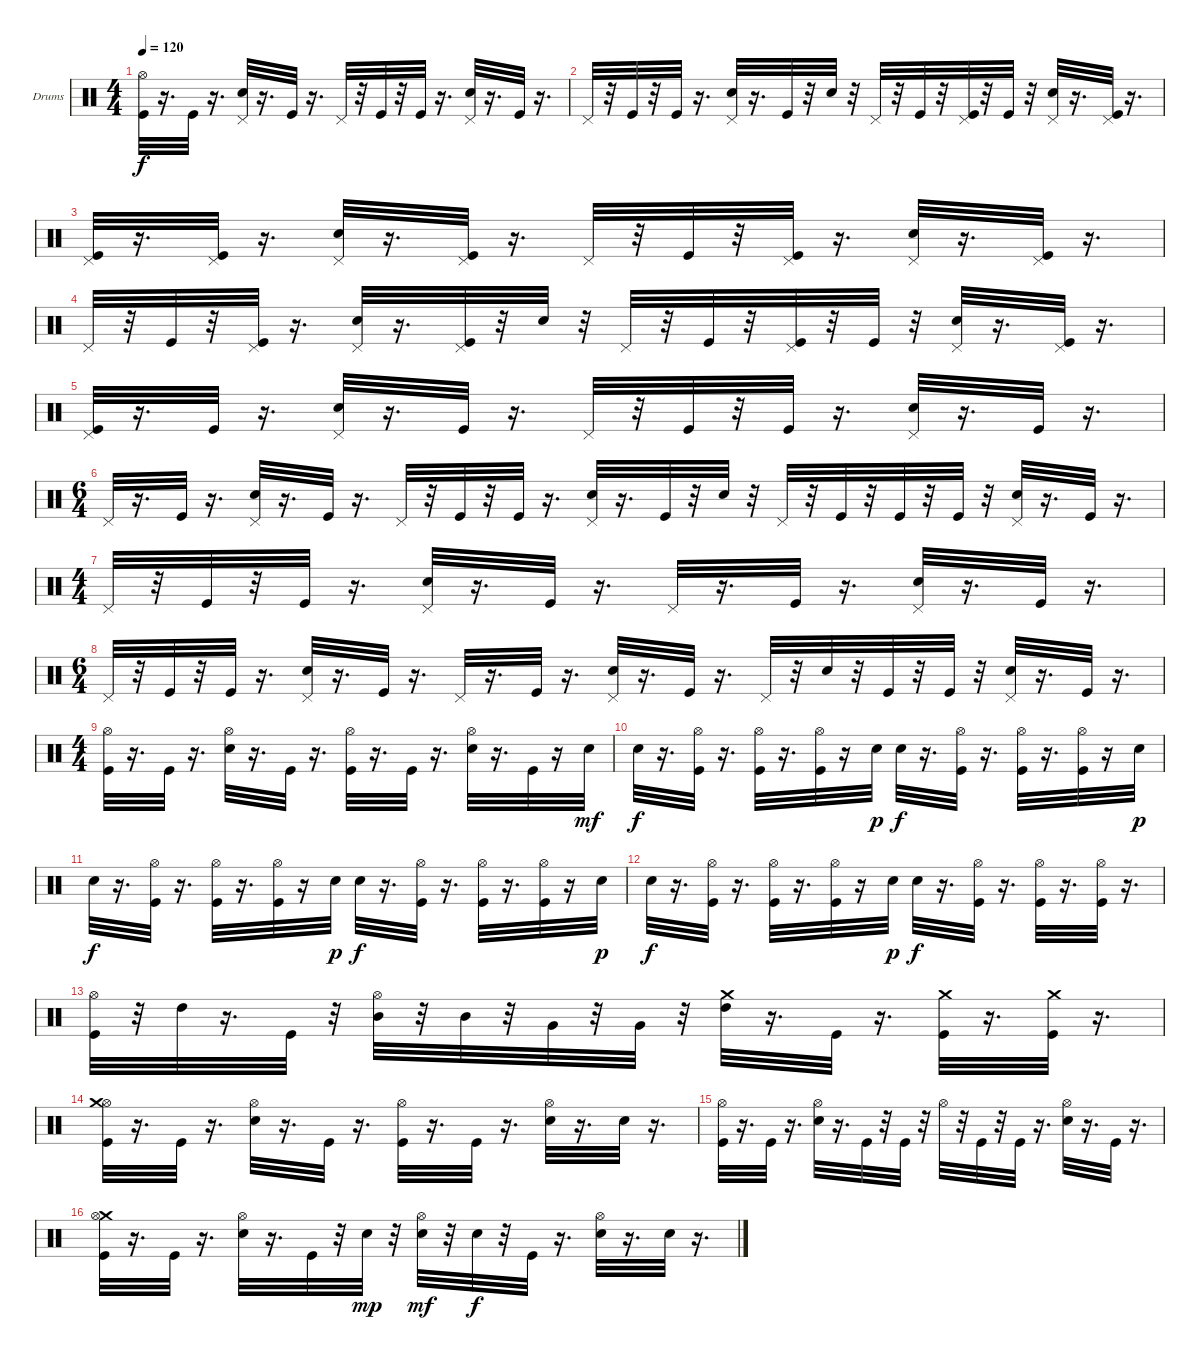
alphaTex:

\bracketExtendMode groupsimilarinstruments
\firstSystemTrackNameOrientation horizontal
\otherSystemsTrackNameOrientation horizontal
\track ("Drumkit" "Drums") {instrument percussion}
\staff {score}
\articulation defaults
\ts (4 4)
\tempo 120
\clef neutral
\ks c
("Hi-Hat (open)" "Kick (hit)").32{dy f} r.16{d} "Kick (hit)".32 r.16{d} ("Pedal Hi-Hat (hit)" "Snare (hit) 2").32 r.16{d} "Kick (hit)".32 r.16{d} "Pedal Hi-Hat (hit)".32 r.32 "Kick (hit)".32 r.32 "Kick (hit)".32 r.16{d} ("Pedal Hi-Hat (hit)" "Snare (hit) 2").32 r.16{d} "Kick (hit)".32 r.16{d} |
"Pedal Hi-Hat (hit)".32 r.32 "Kick (hit)".32 r.32 "Kick (hit)".32 r.16{d} ("Pedal Hi-Hat (hit)" "Snare (hit) 2").32 r.16{d} "Kick (hit)".32 r.32 "Snare (hit) 2".32 r.32 "Pedal Hi-Hat (hit)".32 r.32 "Kick (hit)".32 r.32 ("Pedal Hi-Hat (hit)" "Kick (hit)").32 r.32 "Kick (hit)".32 r.32 ("Pedal Hi-Hat (hit)" "Snare (hit) 2").32 r.16{d} ("Kick (hit)" "Pedal Hi-Hat (hit)").32 r.16{d} |
("Pedal Hi-Hat (hit)" "Kick (hit)").32 r.16{d} ("Pedal Hi-Hat (hit)" "Kick (hit)").32 r.16{d} ("Pedal Hi-Hat (hit)" "Snare (hit) 2").32 r.16{d} ("Pedal Hi-Hat (hit)" "Kick (hit)").32 r.16{d} "Pedal Hi-Hat (hit)".32 r.32 "Kick (hit)".32 r.32 ("Pedal Hi-Hat (hit)" "Kick (hit)").32 r.16{d} ("Pedal Hi-Hat (hit)" "Snare (hit) 2").32 r.16{d} ("Pedal Hi-Hat (hit)" "Kick (hit)").32 r.16{d} |
"Pedal Hi-Hat (hit)".32 r.32 "Kick (hit)".32 r.32 ("Pedal Hi-Hat (hit)" "Kick (hit)").32 r.16{d} ("Pedal Hi-Hat (hit)" "Snare (hit) 2").32 r.16{d} ("Pedal Hi-Hat (hit)" "Kick (hit)").32 r.32 "Snare (hit) 2".32 r.32 "Pedal Hi-Hat (hit)".32 r.32 "Kick (hit)".32 r.32 ("Pedal Hi-Hat (hit)" "Kick (hit)").32 r.32 "Kick (hit)".32 r.32 ("Pedal Hi-Hat (hit)" "Snare (hit) 2").32 r.16{d} ("Kick (hit)" "Pedal Hi-Hat (hit)").32 r.16{d} |
("Pedal Hi-Hat (hit)" "Kick (hit)").32 r.16{d} "Kick (hit)".32 r.16{d} ("Pedal Hi-Hat (hit)" "Snare (hit) 2").32 r.16{d} "Kick (hit)".32 r.16{d} "Pedal Hi-Hat (hit)".32 r.32 "Kick (hit)".32 r.32 "Kick (hit)".32 r.16{d} ("Pedal Hi-Hat (hit)" "Snare (hit) 2").32 r.16{d} "Kick (hit)".32 r.16{d} |
\ts (6 4)
"Pedal Hi-Hat (hit)".32 r.16{d} "Kick (hit)".32 r.16{d} ("Snare (hit) 2" "Pedal Hi-Hat (hit)").32 r.16{d} "Kick (hit)".32 r.16{d} "Pedal Hi-Hat (hit)".32 r.32 "Kick (hit)".32 r.32 "Kick (hit)".32 r.16{d} ("Snare (hit) 2" "Pedal Hi-Hat (hit)").32 r.16{d} "Kick (hit)".32 r.32 "Snare (hit) 2".32 r.32 "Pedal Hi-Hat (hit)".32 r.32 "Kick (hit)".32 r.32 "Kick (hit)".32 r.32 "Kick (hit)".32 r.32 ("Pedal Hi-Hat (hit)" "Snare (hit) 2").32 r.16{d} "Kick (hit)".32 r.16{d} |
\ts (4 4)
"Pedal Hi-Hat (hit)".32 r.32 "Kick (hit)".32 r.32 "Kick (hit)".32 r.16{d} ("Pedal Hi-Hat (hit)" "Snare (hit) 2").32 r.16{d} "Kick (hit)".32 r.16{d} "Pedal Hi-Hat (hit)".32 r.16{d} "Kick (hit)".32 r.16{d} ("Pedal Hi-Hat (hit)" "Snare (hit) 2").32 r.16{d} "Kick (hit)".32 r.16{d} |
\ts (6 4)
"Pedal Hi-Hat (hit)".32 r.32 "Kick (hit)".32 r.32 "Kick (hit)".32 r.16{d} ("Pedal Hi-Hat (hit)" "Snare (hit) 2").32 r.16{d} "Kick (hit)".32 r.16{d} "Pedal Hi-Hat (hit)".32 r.16{d} "Kick (hit)".32 r.16{d} ("Pedal Hi-Hat (hit)" "Snare (hit) 2").32 r.16{d} "Kick (hit)".32 r.16{d} "Pedal Hi-Hat (hit)".32 r.32 "Snare (hit) 2".32 r.32 "Kick (hit)".32 r.32 "Kick (hit)".32 r.32 ("Pedal Hi-Hat (hit)" "Snare (hit) 2").32 r.16{d} "Kick (hit)".32 r.16{d} |
\ts (4 4)
("Hi-Hat (open)" "Kick (hit)").32 r.16{d} "Kick (hit)".32 r.16{d} ("Hi-Hat (open)" "Snare (hit) 2").32 r.16{d} "Kick (hit)".32 r.16{d} ("Hi-Hat (open)" "Kick (hit)").32 r.16{d} "Kick (hit)".32 r.16{d} ("Hi-Hat (open)" "Snare (hit) 2").32 r.16{d} "Kick (hit)".32 r.16 "Snare (hit) 2".32{dy mf} |
"Snare (hit) 2".32{dy f} r.16{d} ("Kick (hit)" "Hi-Hat (open)").32 r.16{d} ("Kick (hit)" "Hi-Hat (open)").32 r.16{d} ("Kick (hit)" "Hi-Hat (open)").32 r.16 "Snare (hit) 2".32{dy p} "Snare (hit) 2".32{dy f} r.16{d} ("Kick (hit)" "Hi-Hat (open)").32 r.16{d} ("Kick (hit)" "Hi-Hat (open)").32 r.16{d} ("Kick (hit)" "Hi-Hat (open)").32 r.16 "Snare (hit) 2".32{dy p} |
"Snare (hit) 2".32{dy f} r.16{d} ("Kick (hit)" "Hi-Hat (open)").32 r.16{d} ("Kick (hit)" "Hi-Hat (open)").32 r.16{d} ("Kick (hit)" "Hi-Hat (open)").32 r.16 "Snare (hit) 2".32{dy p} "Snare (hit) 2".32{dy f} r.16{d} ("Kick (hit)" "Hi-Hat (open)").32 r.16{d} ("Kick (hit)" "Hi-Hat (open)").32 r.16{d} ("Kick (hit)" "Hi-Hat (open)").32 r.16 "Snare (hit) 2".32{dy p} |
"Snare (hit) 2".32{dy f} r.16{d} ("Kick (hit)" "Hi-Hat (open)").32 r.16{d} ("Kick (hit)" "Hi-Hat (open)").32 r.16{d} ("Kick (hit)" "Hi-Hat (open)").32 r.16 "Snare (hit) 2".32{dy p} "Snare (hit) 2".32{dy f} r.16{d} ("Kick (hit)" "Hi-Hat (open)").32 r.16{d} ("Kick (hit)" "Hi-Hat (open)").32 r.16{d} ("Kick (hit)" "Hi-Hat (open)").32 r.16{d} |
("Hi-Hat (open)" "Kick (hit)").32 r.32 "High Tom (hit)".32 r.16{d} "Kick (hit)".32 r.32 ("Hi-Hat (open)" "Mid Tom (hit)").32 r.32 "Mid Tom (hit)".32 r.32 "Very Low Tom (hit)".32 r.32 "Very Low Tom (hit)".32 r.32 ("Crash medium (hit)" "High Tom (hit)").32 r.16{d} "Kick (hit)".32 r.16{d} ("Kick (hit)" "Crash medium (hit)").32 r.16{d} ("Kick (hit)" "Crash medium (hit)").32 r.16{d} |
("Hi-Hat (open)" "Kick (hit)" "Crash medium (hit)").32 r.16{d} "Kick (hit)".32 r.16{d} ("Hi-Hat (open)" "Snare (hit) 2").32 r.16{d} "Kick (hit)".32 r.16{d} ("Hi-Hat (open)" "Kick (hit)").32 r.16{d} "Kick (hit)".32 r.16{d} ("Hi-Hat (open)" "Snare (hit) 2").32 r.16{d} "Snare (hit) 2".32 r.16{d} |
("Kick (hit)" "Hi-Hat (open)").32 r.16{d} "Kick (hit)".32 r.16{d} ("Snare (hit) 2" "Hi-Hat (open)").32 r.16{d} "Kick (hit)".32 r.32 "Kick (hit)".32 r.32 "Hi-Hat (open)".32 r.32 "Kick (hit)".32 r.32 "Kick (hit)".32 r.16{d} ("Snare (hit) 2" "Hi-Hat (open)").32 r.16{d} "Kick (hit)".32 r.16{d} |
("Crash medium (hit)" "Kick (hit)" "Hi-Hat (open)").32 r.16{d} "Kick (hit)".32 r.16{d} ("Snare (hit) 2" "Hi-Hat (open)").32 r.16{d} "Kick (hit)".32 r.32 "Snare (hit) 2".32{dy mp} r.32 ("Snare (hit) 2" "Hi-Hat (open)").32{dy mf} r.32 "Snare (hit) 2".32{dy f} r.32 "Kick (hit)".32 r.16{d} ("Snare (hit) 2" "Hi-Hat (open)").32 r.16{d} "Snare (hit) 2".32 r.16{d}
